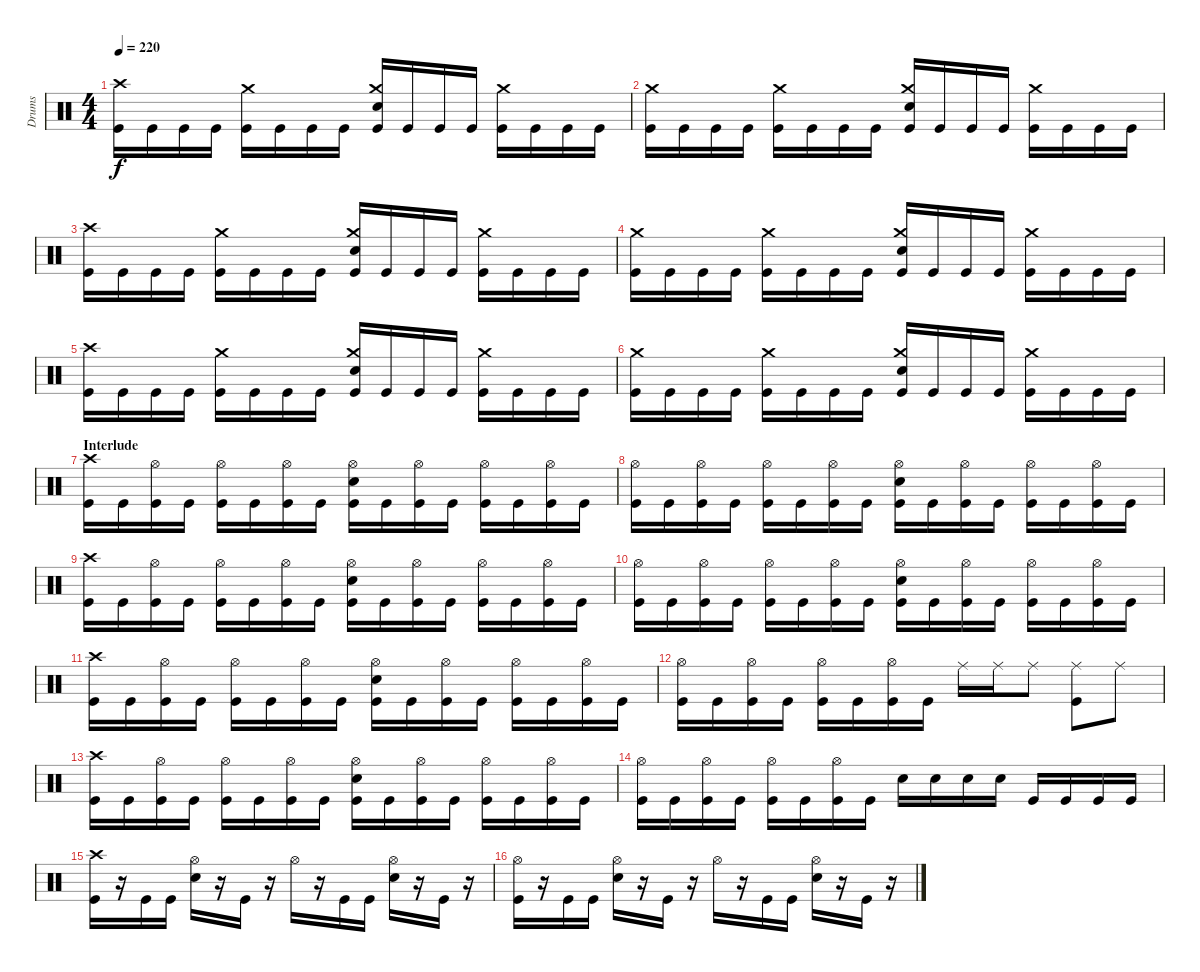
\track ("Drums" "Drums") {instrument percussion}
\staff {score}
\articulation defaults
\ts (4 4)
\tempo 220
\clef neutral
\ks c
("Crash high (hit)" "Kick (hit)").16{dy f} "Kick (hit)".16 "Kick (hit)".16 "Kick (hit)".16 ("Crash medium (hit)" "Kick (hit)").16 "Kick (hit)".16 "Kick (hit)".16 "Kick (hit)".16 ("Crash medium (hit)" "Snare (hit) 2" "Kick (hit)").16 "Kick (hit)".16 "Kick (hit)".16 "Kick (hit)".16 ("Crash medium (hit)" "Kick (hit)").16 "Kick (hit)".16 "Kick (hit)".16 "Kick (hit)".16 |
("Crash medium (hit)" "Kick (hit)").16 "Kick (hit)".16 "Kick (hit)".16 "Kick (hit)".16 ("Crash medium (hit)" "Kick (hit)").16 "Kick (hit)".16 "Kick (hit)".16 "Kick (hit)".16 ("Crash medium (hit)" "Snare (hit) 2" "Kick (hit)").16 "Kick (hit)".16 "Kick (hit)".16 "Kick (hit)".16 ("Crash medium (hit)" "Kick (hit)").16 "Kick (hit)".16 "Kick (hit)".16 "Kick (hit)".16 |
("Crash high (hit)" "Kick (hit)").16 "Kick (hit)".16 "Kick (hit)".16 "Kick (hit)".16 ("Crash medium (hit)" "Kick (hit)").16 "Kick (hit)".16 "Kick (hit)".16 "Kick (hit)".16 ("Crash medium (hit)" "Snare (hit) 2" "Kick (hit)").16 "Kick (hit)".16 "Kick (hit)".16 "Kick (hit)".16 ("Crash medium (hit)" "Kick (hit)").16 "Kick (hit)".16 "Kick (hit)".16 "Kick (hit)".16 |
("Crash medium (hit)" "Kick (hit)").16 "Kick (hit)".16 "Kick (hit)".16 "Kick (hit)".16 ("Crash medium (hit)" "Kick (hit)").16 "Kick (hit)".16 "Kick (hit)".16 "Kick (hit)".16 ("Crash medium (hit)" "Snare (hit) 2" "Kick (hit)").16 "Kick (hit)".16 "Kick (hit)".16 "Kick (hit)".16 ("Crash medium (hit)" "Kick (hit)").16 "Kick (hit)".16 "Kick (hit)".16 "Kick (hit)".16 |
("Crash high (hit)" "Kick (hit)").16 "Kick (hit)".16 "Kick (hit)".16 "Kick (hit)".16 ("Crash medium (hit)" "Kick (hit)").16 "Kick (hit)".16 "Kick (hit)".16 "Kick (hit)".16 ("Crash medium (hit)" "Snare (hit) 2" "Kick (hit)").16 "Kick (hit)".16 "Kick (hit)".16 "Kick (hit)".16 ("Crash medium (hit)" "Kick (hit)").16 "Kick (hit)".16 "Kick (hit)".16 "Kick (hit)".16 |
("Crash medium (hit)" "Kick (hit)").16 "Kick (hit)".16 "Kick (hit)".16 "Kick (hit)".16 ("Crash medium (hit)" "Kick (hit)").16 "Kick (hit)".16 "Kick (hit)".16 "Kick (hit)".16 ("Crash medium (hit)" "Snare (hit) 2" "Kick (hit)").16 "Kick (hit)".16 "Kick (hit)".16 "Kick (hit)".16 ("Crash medium (hit)" "Kick (hit)").16 "Kick (hit)".16 "Kick (hit)".16 "Kick (hit)".16 |
\section ("" "Interlude")
("Crash high (hit)" "Kick (hit)").16 "Kick (hit)".16 ("Hi-Hat (open)" "Kick (hit)").16 "Kick (hit)".16 ("Hi-Hat (open)" "Kick (hit)").16 "Kick (hit)".16 ("Hi-Hat (open)" "Kick (hit)").16 "Kick (hit)".16 ("Hi-Hat (open)" "Snare (hit) 2" "Kick (hit)").16 "Kick (hit)".16 ("Hi-Hat (open)" "Kick (hit)").16 "Kick (hit)".16 ("Hi-Hat (open)" "Kick (hit)").16 "Kick (hit)".16 ("Hi-Hat (open)" "Kick (hit)").16 "Kick (hit)".16 |
("Hi-Hat (open)" "Kick (hit)").16 "Kick (hit)".16 ("Hi-Hat (open)" "Kick (hit)").16 "Kick (hit)".16 ("Hi-Hat (open)" "Kick (hit)").16 "Kick (hit)".16 ("Hi-Hat (open)" "Kick (hit)").16 "Kick (hit)".16 ("Hi-Hat (open)" "Snare (hit) 2" "Kick (hit)").16 "Kick (hit)".16 ("Hi-Hat (open)" "Kick (hit)").16 "Kick (hit)".16 ("Hi-Hat (open)" "Kick (hit)").16 "Kick (hit)".16 ("Hi-Hat (open)" "Kick (hit)").16 "Kick (hit)".16 |
("Crash high (hit)" "Kick (hit)").16 "Kick (hit)".16 ("Hi-Hat (open)" "Kick (hit)").16 "Kick (hit)".16 ("Hi-Hat (open)" "Kick (hit)").16 "Kick (hit)".16 ("Hi-Hat (open)" "Kick (hit)").16 "Kick (hit)".16 ("Hi-Hat (open)" "Snare (hit) 2" "Kick (hit)").16 "Kick (hit)".16 ("Hi-Hat (open)" "Kick (hit)").16 "Kick (hit)".16 ("Hi-Hat (open)" "Kick (hit)").16 "Kick (hit)".16 ("Hi-Hat (open)" "Kick (hit)").16 "Kick (hit)".16 |
("Hi-Hat (open)" "Kick (hit)").16 "Kick (hit)".16 ("Hi-Hat (open)" "Kick (hit)").16 "Kick (hit)".16 ("Hi-Hat (open)" "Kick (hit)").16 "Kick (hit)".16 ("Hi-Hat (open)" "Kick (hit)").16 "Kick (hit)".16 ("Hi-Hat (open)" "Snare (hit) 2" "Kick (hit)").16 "Kick (hit)".16 ("Hi-Hat (open)" "Kick (hit)").16 "Kick (hit)".16 ("Hi-Hat (open)" "Kick (hit)").16 "Kick (hit)".16 ("Hi-Hat (open)" "Kick (hit)").16 "Kick (hit)".16 |
("Crash high (hit)" "Kick (hit)").16 "Kick (hit)".16 ("Hi-Hat (open)" "Kick (hit)").16 "Kick (hit)".16 ("Hi-Hat (open)" "Kick (hit)").16 "Kick (hit)".16 ("Hi-Hat (open)" "Kick (hit)").16 "Kick (hit)".16 ("Hi-Hat (open)" "Snare (hit) 2" "Kick (hit)").16 "Kick (hit)".16 ("Hi-Hat (open)" "Kick (hit)").16 "Kick (hit)".16 ("Hi-Hat (open)" "Kick (hit)").16 "Kick (hit)".16 ("Hi-Hat (open)" "Kick (hit)").16 "Kick (hit)".16 |
("Hi-Hat (open)" "Kick (hit)").16 "Kick (hit)".16 ("Hi-Hat (open)" "Kick (hit)").16 "Kick (hit)".16 ("Hi-Hat (open)" "Kick (hit)").16 "Kick (hit)".16 ("Hi-Hat (open)" "Kick (hit)").16 "Kick (hit)".16 "Ride (middle)".16 "Ride (middle)".16 "Ride (middle)".8 ("Ride (middle)" "Kick (hit)").8 "Ride (middle)".8 |
("Crash high (hit)" "Kick (hit)").16 "Kick (hit)".16 ("Hi-Hat (open)" "Kick (hit)").16 "Kick (hit)".16 ("Hi-Hat (open)" "Kick (hit)").16 "Kick (hit)".16 ("Hi-Hat (open)" "Kick (hit)").16 "Kick (hit)".16 ("Hi-Hat (open)" "Snare (hit) 2" "Kick (hit)").16 "Kick (hit)".16 ("Hi-Hat (open)" "Kick (hit)").16 "Kick (hit)".16 ("Hi-Hat (open)" "Kick (hit)").16 "Kick (hit)".16 ("Hi-Hat (open)" "Kick (hit)").16 "Kick (hit)".16 |
("Hi-Hat (open)" "Kick (hit)").16 "Kick (hit)".16 ("Hi-Hat (open)" "Kick (hit)").16 "Kick (hit)".16 ("Hi-Hat (open)" "Kick (hit)").16 "Kick (hit)".16 ("Hi-Hat (open)" "Kick (hit)").16 "Kick (hit)".16 "Snare (hit) 2".16 "Snare (hit) 2".16 "Snare (hit) 2".16 "Snare (hit) 2".16 "Kick (hit)".16 "Kick (hit)".16 "Kick (hit)".16 "Kick (hit)".16 |
("Crash high (hit)" "Kick (hit)").16 r.16 "Kick (hit)".16 "Kick (hit)".16 ("Hi-Hat (open)" "Snare (hit) 2").16 r.16 "Kick (hit)".16 r.16 "Hi-Hat (open)".16 r.16 "Kick (hit)".16 "Kick (hit)".16 ("Hi-Hat (open)" "Snare (hit) 2").16 r.16 "Kick (hit)".16 r.16 |
("Hi-Hat (open)" "Kick (hit)").16 r.16 "Kick (hit)".16 "Kick (hit)".16 ("Hi-Hat (open)" "Snare (hit) 2").16 r.16 "Kick (hit)".16 r.16 "Hi-Hat (open)".16 r.16 "Kick (hit)".16 "Kick (hit)".16 ("Hi-Hat (open)" "Snare (hit) 2").16 r.16 "Kick (hit)".16 r.16
